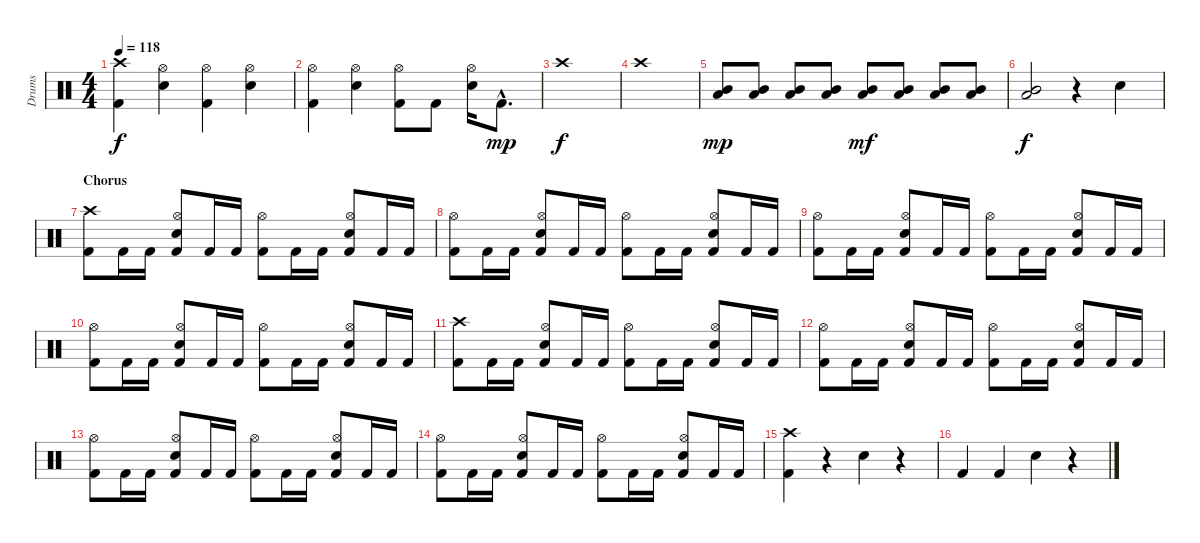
\track ("Drums" "Drums") {instrument percussion}
\staff {score}
\articulation defaults
\ts (4 4)
\tempo 118
\clef neutral
\ks c
("Crash high (hit)" "Kick (hit) 2").4{dy f} ("Hi-Hat (open)" "Snare (hit) 2").4 ("Hi-Hat (open)" "Kick (hit) 2").4 ("Hi-Hat (open)" "Snare (hit) 2").4 |
("Hi-Hat (open)" "Kick (hit) 2").4 ("Hi-Hat (open)" "Snare (hit) 2").4 ("Hi-Hat (open)" "Kick (hit) 2").8 "Kick (hit) 2".8 ("Hi-Hat (open)" "Snare (hit) 2").16 "Kick (hit) 2"{hac}.8{d dy mp} |
"Crash high (hit)".1{dy f} |
"Crash high (hit)".1 |
("Mid Tom (hit)" "Low Tom (hit)").8{dy mp} ("Mid Tom (hit)" "Low Tom (hit)").8 ("Mid Tom (hit)" "Low Tom (hit)").8 ("Mid Tom (hit)" "Low Tom (hit)").8 ("Mid Tom (hit)" "Low Tom (hit)").8{dy mf} ("Mid Tom (hit)" "Low Tom (hit)").8 ("Mid Tom (hit)" "Low Tom (hit)").8 ("Mid Tom (hit)" "Low Tom (hit)").8 |
("Mid Tom (hit)" "Low Tom (hit)").2{dy f} r.4 "Snare (hit) 2".4 |
\section ("" "Chorus")
("Crash high (hit)" "Kick (hit) 2").8 "Kick (hit) 2".16 "Kick (hit) 2".16 ("Hi-Hat (open)" "Snare (hit) 2" "Kick (hit) 2").8 "Kick (hit) 2".16 "Kick (hit) 2".16 ("Hi-Hat (open)" "Kick (hit) 2").8 "Kick (hit) 2".16 "Kick (hit) 2".16 ("Hi-Hat (open)" "Snare (hit) 2" "Kick (hit) 2").8 "Kick (hit) 2".16 "Kick (hit) 2".16 |
("Hi-Hat (open)" "Kick (hit) 2").8 "Kick (hit) 2".16 "Kick (hit) 2".16 ("Hi-Hat (open)" "Snare (hit) 2" "Kick (hit) 2").8 "Kick (hit) 2".16 "Kick (hit) 2".16 ("Hi-Hat (open)" "Kick (hit) 2").8 "Kick (hit) 2".16 "Kick (hit) 2".16 ("Hi-Hat (open)" "Snare (hit) 2" "Kick (hit) 2").8 "Kick (hit) 2".16 "Kick (hit) 2".16 |
("Hi-Hat (open)" "Kick (hit) 2").8 "Kick (hit) 2".16 "Kick (hit) 2".16 ("Hi-Hat (open)" "Snare (hit) 2" "Kick (hit) 2").8 "Kick (hit) 2".16 "Kick (hit) 2".16 ("Hi-Hat (open)" "Kick (hit) 2").8 "Kick (hit) 2".16 "Kick (hit) 2".16 ("Hi-Hat (open)" "Snare (hit) 2" "Kick (hit) 2").8 "Kick (hit) 2".16 "Kick (hit) 2".16 |
("Hi-Hat (open)" "Kick (hit) 2").8 "Kick (hit) 2".16 "Kick (hit) 2".16 ("Hi-Hat (open)" "Snare (hit) 2" "Kick (hit) 2").8 "Kick (hit) 2".16 "Kick (hit) 2".16 ("Hi-Hat (open)" "Kick (hit) 2").8 "Kick (hit) 2".16 "Kick (hit) 2".16 ("Hi-Hat (open)" "Snare (hit) 2" "Kick (hit) 2").8 "Kick (hit) 2".16 "Kick (hit) 2".16 |
("Crash high (hit)" "Kick (hit) 2").8 "Kick (hit) 2".16 "Kick (hit) 2".16 ("Hi-Hat (open)" "Snare (hit) 2" "Kick (hit) 2").8 "Kick (hit) 2".16 "Kick (hit) 2".16 ("Hi-Hat (open)" "Kick (hit) 2").8 "Kick (hit) 2".16 "Kick (hit) 2".16 ("Hi-Hat (open)" "Snare (hit) 2" "Kick (hit) 2").8 "Kick (hit) 2".16 "Kick (hit) 2".16 |
("Hi-Hat (open)" "Kick (hit) 2").8 "Kick (hit) 2".16 "Kick (hit) 2".16 ("Hi-Hat (open)" "Snare (hit) 2" "Kick (hit) 2").8 "Kick (hit) 2".16 "Kick (hit) 2".16 ("Hi-Hat (open)" "Kick (hit) 2").8 "Kick (hit) 2".16 "Kick (hit) 2".16 ("Hi-Hat (open)" "Snare (hit) 2" "Kick (hit) 2").8 "Kick (hit) 2".16 "Kick (hit) 2".16 |
("Hi-Hat (open)" "Kick (hit) 2").8 "Kick (hit) 2".16 "Kick (hit) 2".16 ("Hi-Hat (open)" "Snare (hit) 2" "Kick (hit) 2").8 "Kick (hit) 2".16 "Kick (hit) 2".16 ("Hi-Hat (open)" "Kick (hit) 2").8 "Kick (hit) 2".16 "Kick (hit) 2".16 ("Hi-Hat (open)" "Snare (hit) 2" "Kick (hit) 2").8 "Kick (hit) 2".16 "Kick (hit) 2".16 |
("Hi-Hat (open)" "Kick (hit) 2").8 "Kick (hit) 2".16 "Kick (hit) 2".16 ("Hi-Hat (open)" "Snare (hit) 2" "Kick (hit) 2").8 "Kick (hit) 2".16 "Kick (hit) 2".16 ("Hi-Hat (open)" "Kick (hit) 2").8 "Kick (hit) 2".16 "Kick (hit) 2".16 ("Hi-Hat (open)" "Snare (hit) 2" "Kick (hit) 2").8 "Kick (hit) 2".16 "Kick (hit) 2".16 |
("Crash high (hit)" "Kick (hit) 2").4 r.4 "Snare (hit) 2".4 r.4 |
"Kick (hit) 2".4 "Kick (hit) 2".4 "Snare (hit) 2".4 r.4
